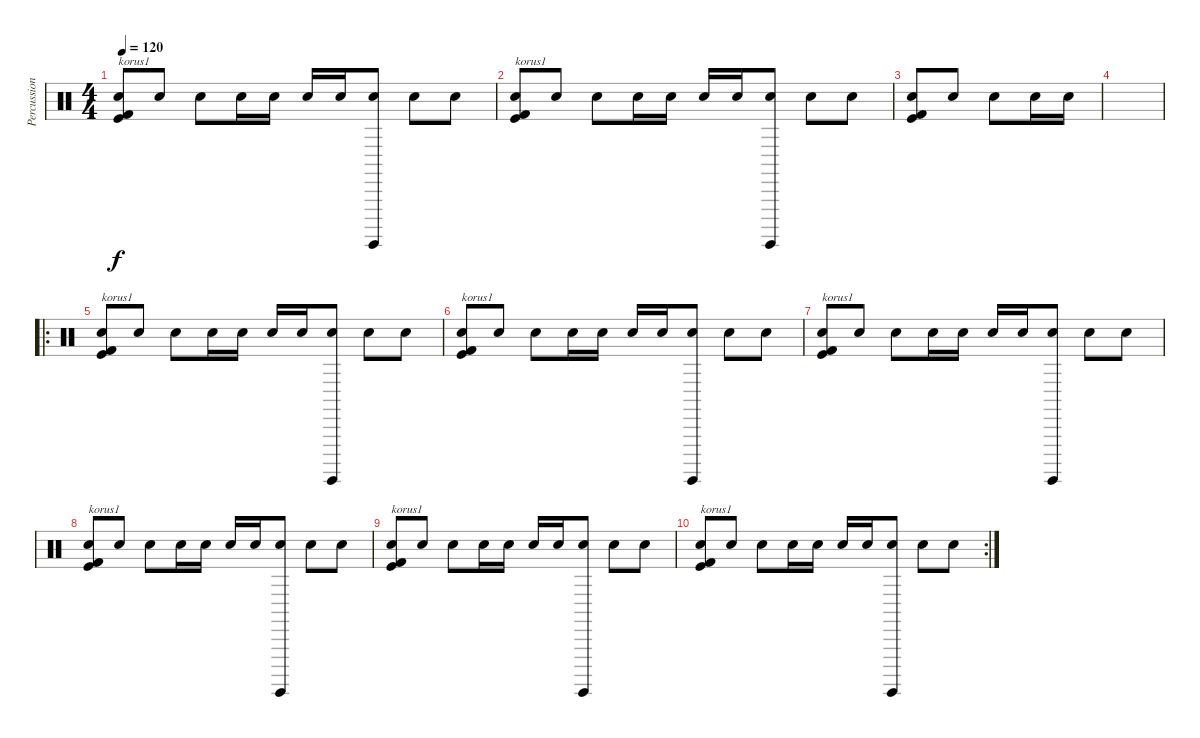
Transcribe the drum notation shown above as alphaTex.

\track ("Percussion" "Percussion") {instrument percussion}
\staff {score}
\articulation defaults
\ts (4 4)
\tempo 120
\clef neutral
\ks c
("Hand Clap (hit)" "Kick (hit) 2" "Kick (hit)").8{txt "korus1" dy f} "Hand Clap (hit)".8 "Hand Clap (hit)".8 "Hand Clap (hit)".16 "Hand Clap (hit)".16 "Hand Clap (hit)".16 "Hand Clap (hit)".16 ("Hand Clap (hit)" "Surdo (hit)").8 "Hand Clap (hit)".8 "Hand Clap (hit)".8 |
("Hand Clap (hit)" "Kick (hit) 2" "Kick (hit)").8{txt "korus1"} "Hand Clap (hit)".8 "Hand Clap (hit)".8 "Hand Clap (hit)".16 "Hand Clap (hit)".16 "Hand Clap (hit)".16 "Hand Clap (hit)".16 ("Hand Clap (hit)" "Surdo (hit)").8 "Hand Clap (hit)".8 "Hand Clap (hit)".8 |
("Hand Clap (hit)" "Kick (hit)" "Kick (hit) 2").8 "Hand Clap (hit)".8 "Hand Clap (hit)".8 "Hand Clap (hit)".16 "Hand Clap (hit)".16 |
|
\ro
("Hand Clap (hit)" "Kick (hit) 2" "Kick (hit)").8{txt "korus1"} "Hand Clap (hit)".8 "Hand Clap (hit)".8 "Hand Clap (hit)".16 "Hand Clap (hit)".16 "Hand Clap (hit)".16 "Hand Clap (hit)".16 ("Hand Clap (hit)" "Surdo (hit)").8 "Hand Clap (hit)".8 "Hand Clap (hit)".8 |
("Hand Clap (hit)" "Kick (hit) 2" "Kick (hit)").8{txt "korus1"} "Hand Clap (hit)".8 "Hand Clap (hit)".8 "Hand Clap (hit)".16 "Hand Clap (hit)".16 "Hand Clap (hit)".16 "Hand Clap (hit)".16 ("Hand Clap (hit)" "Surdo (hit)").8 "Hand Clap (hit)".8 "Hand Clap (hit)".8 |
("Hand Clap (hit)" "Kick (hit) 2" "Kick (hit)").8{txt "korus1"} "Hand Clap (hit)".8 "Hand Clap (hit)".8 "Hand Clap (hit)".16 "Hand Clap (hit)".16 "Hand Clap (hit)".16 "Hand Clap (hit)".16 ("Hand Clap (hit)" "Surdo (hit)").8 "Hand Clap (hit)".8 "Hand Clap (hit)".8 |
("Hand Clap (hit)" "Kick (hit) 2" "Kick (hit)").8{txt "korus1"} "Hand Clap (hit)".8 "Hand Clap (hit)".8 "Hand Clap (hit)".16 "Hand Clap (hit)".16 "Hand Clap (hit)".16 "Hand Clap (hit)".16 ("Hand Clap (hit)" "Surdo (hit)").8 "Hand Clap (hit)".8 "Hand Clap (hit)".8 |
("Hand Clap (hit)" "Kick (hit) 2" "Kick (hit)").8{txt "korus1"} "Hand Clap (hit)".8 "Hand Clap (hit)".8 "Hand Clap (hit)".16 "Hand Clap (hit)".16 "Hand Clap (hit)".16 "Hand Clap (hit)".16 ("Hand Clap (hit)" "Surdo (hit)").8 "Hand Clap (hit)".8 "Hand Clap (hit)".8 |
\rc 2
("Hand Clap (hit)" "Kick (hit) 2" "Kick (hit)").8{txt "korus1"} "Hand Clap (hit)".8 "Hand Clap (hit)".8 "Hand Clap (hit)".16 "Hand Clap (hit)".16 "Hand Clap (hit)".16 "Hand Clap (hit)".16 ("Hand Clap (hit)" "Surdo (hit)").8 "Hand Clap (hit)".8 "Hand Clap (hit)".8
